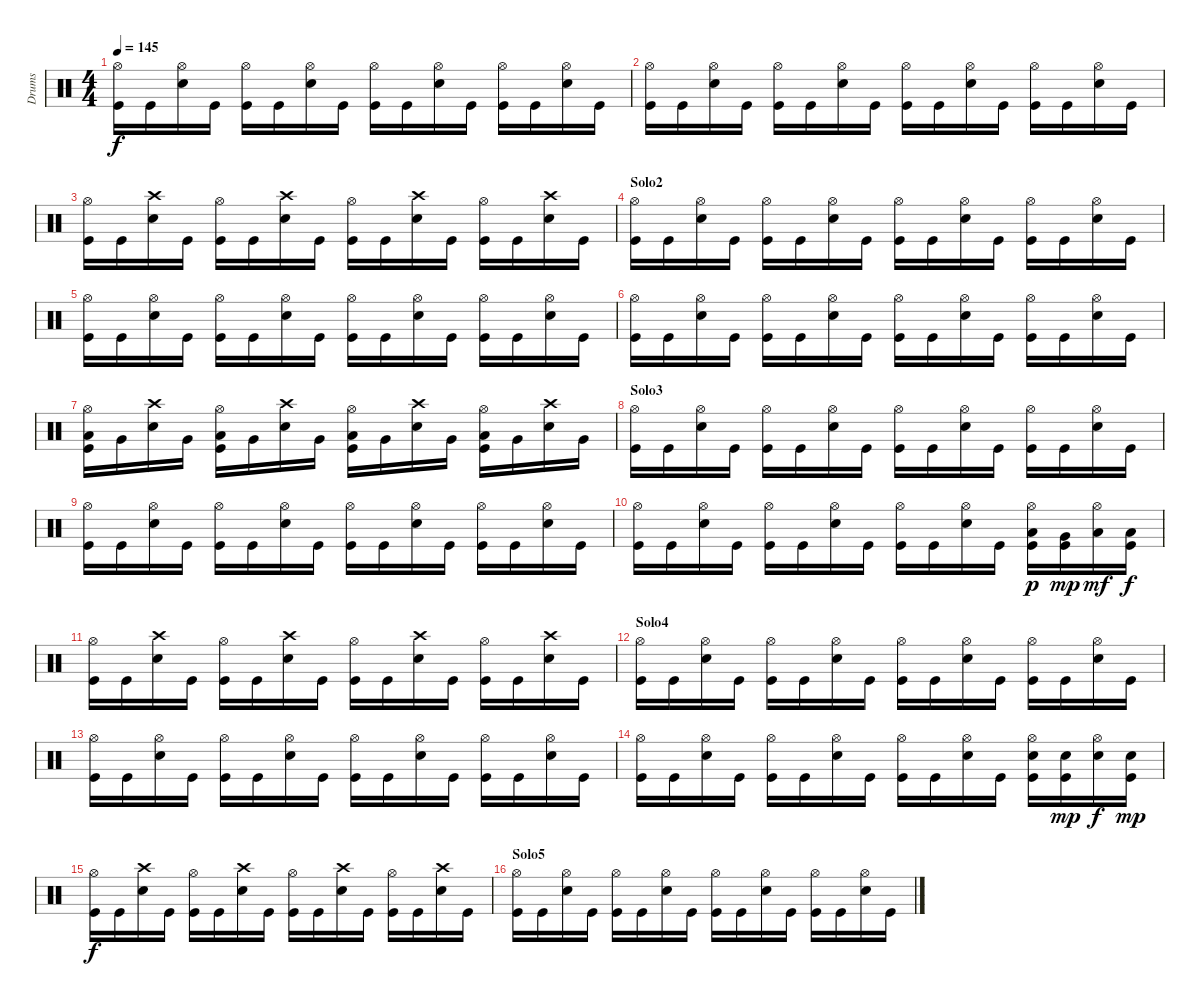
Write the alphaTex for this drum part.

\track ("Drums" "Drums") {instrument percussion}
\staff {score}
\articulation defaults
\ts (4 4)
\tempo 145
\clef neutral
\ks c
("Hi-Hat (open)" "Kick (hit)").16{dy f} "Kick (hit)".16 ("Hi-Hat (open)" "Electric Snare (hit)").16 "Kick (hit)".16 ("Hi-Hat (open)" "Kick (hit)").16 "Kick (hit)".16 ("Hi-Hat (open)" "Electric Snare (hit)").16 "Kick (hit)".16 ("Hi-Hat (open)" "Kick (hit)").16 "Kick (hit)".16 ("Hi-Hat (open)" "Electric Snare (hit)").16 "Kick (hit)".16 ("Hi-Hat (open)" "Kick (hit)").16 "Kick (hit)".16 ("Hi-Hat (open)" "Electric Snare (hit)").16 "Kick (hit)".16 |
("Hi-Hat (open)" "Kick (hit)").16 "Kick (hit)".16 ("Hi-Hat (open)" "Electric Snare (hit)").16 "Kick (hit)".16 ("Hi-Hat (open)" "Kick (hit)").16 "Kick (hit)".16 ("Hi-Hat (open)" "Electric Snare (hit)").16 "Kick (hit)".16 ("Hi-Hat (open)" "Kick (hit)").16 "Kick (hit)".16 ("Hi-Hat (open)" "Electric Snare (hit)").16 "Kick (hit)".16 ("Hi-Hat (open)" "Kick (hit)").16 "Kick (hit)".16 ("Hi-Hat (open)" "Electric Snare (hit)").16 "Kick (hit)".16 |
("Hi-Hat (open)" "Kick (hit)").16 "Kick (hit)".16 ("Crash high (hit)" "Electric Snare (hit)").16 "Kick (hit)".16 ("Hi-Hat (open)" "Kick (hit)").16 "Kick (hit)".16 ("Crash high (hit)" "Electric Snare (hit)").16 "Kick (hit)".16 ("Hi-Hat (open)" "Kick (hit)").16 "Kick (hit)".16 ("Crash high (hit)" "Electric Snare (hit)").16 "Kick (hit)".16 ("Hi-Hat (open)" "Kick (hit)").16 "Kick (hit)".16 ("Crash high (hit)" "Electric Snare (hit)").16 "Kick (hit)".16 |
\section ("" "Solo2")
("Hi-Hat (open)" "Kick (hit)").16 "Kick (hit)".16 ("Hi-Hat (open)" "Electric Snare (hit)").16 "Kick (hit)".16 ("Hi-Hat (open)" "Kick (hit)").16 "Kick (hit)".16 ("Hi-Hat (open)" "Electric Snare (hit)").16 "Kick (hit)".16 ("Hi-Hat (open)" "Kick (hit)").16 "Kick (hit)".16 ("Hi-Hat (open)" "Electric Snare (hit)").16 "Kick (hit)".16 ("Hi-Hat (open)" "Kick (hit)").16 "Kick (hit)".16 ("Hi-Hat (open)" "Electric Snare (hit)").16 "Kick (hit)".16 |
("Hi-Hat (open)" "Kick (hit)").16 "Kick (hit)".16 ("Hi-Hat (open)" "Electric Snare (hit)").16 "Kick (hit)".16 ("Hi-Hat (open)" "Kick (hit)").16 "Kick (hit)".16 ("Hi-Hat (open)" "Electric Snare (hit)").16 "Kick (hit)".16 ("Hi-Hat (open)" "Kick (hit)").16 "Kick (hit)".16 ("Hi-Hat (open)" "Electric Snare (hit)").16 "Kick (hit)".16 ("Hi-Hat (open)" "Kick (hit)").16 "Kick (hit)".16 ("Hi-Hat (open)" "Electric Snare (hit)").16 "Kick (hit)".16 |
("Hi-Hat (open)" "Kick (hit)").16 "Kick (hit)".16 ("Hi-Hat (open)" "Electric Snare (hit)").16 "Kick (hit)".16 ("Hi-Hat (open)" "Kick (hit)").16 "Kick (hit)".16 ("Hi-Hat (open)" "Electric Snare (hit)").16 "Kick (hit)".16 ("Hi-Hat (open)" "Kick (hit)").16 "Kick (hit)".16 ("Hi-Hat (open)" "Electric Snare (hit)").16 "Kick (hit)".16 ("Hi-Hat (open)" "Kick (hit)").16 "Kick (hit)".16 ("Hi-Hat (open)" "Electric Snare (hit)").16 "Kick (hit)".16 |
("Hi-Hat (open)" "Low Tom (hit)" "Kick (hit)").16 "Very Low Tom (hit)".16 ("Crash high (hit)" "Snare (hit) 2").16 "Very Low Tom (hit)".16 ("Hi-Hat (open)" "Low Tom (hit)" "Kick (hit)").16 "Very Low Tom (hit)".16 ("Crash high (hit)" "Snare (hit) 2").16 "Very Low Tom (hit)".16 ("Hi-Hat (open)" "Low Tom (hit)" "Kick (hit)").16 "Very Low Tom (hit)".16 ("Crash high (hit)" "Snare (hit) 2").16 "Very Low Tom (hit)".16 ("Hi-Hat (open)" "Low Tom (hit)" "Kick (hit)").16 "Very Low Tom (hit)".16 ("Crash high (hit)" "Snare (hit) 2").16 "Very Low Tom (hit)".16 |
\section ("" "Solo3")
("Hi-Hat (open)" "Kick (hit)").16 "Kick (hit)".16 ("Hi-Hat (open)" "Electric Snare (hit)").16 "Kick (hit)".16 ("Hi-Hat (open)" "Kick (hit)").16 "Kick (hit)".16 ("Hi-Hat (open)" "Electric Snare (hit)").16 "Kick (hit)".16 ("Hi-Hat (open)" "Kick (hit)").16 "Kick (hit)".16 ("Hi-Hat (open)" "Electric Snare (hit)").16 "Kick (hit)".16 ("Hi-Hat (open)" "Kick (hit)").16 "Kick (hit)".16 ("Hi-Hat (open)" "Electric Snare (hit)").16 "Kick (hit)".16 |
("Hi-Hat (open)" "Kick (hit)").16 "Kick (hit)".16 ("Hi-Hat (open)" "Electric Snare (hit)").16 "Kick (hit)".16 ("Hi-Hat (open)" "Kick (hit)").16 "Kick (hit)".16 ("Hi-Hat (open)" "Electric Snare (hit)").16 "Kick (hit)".16 ("Hi-Hat (open)" "Kick (hit)").16 "Kick (hit)".16 ("Hi-Hat (open)" "Electric Snare (hit)").16 "Kick (hit)".16 ("Hi-Hat (open)" "Kick (hit)").16 "Kick (hit)".16 ("Hi-Hat (open)" "Electric Snare (hit)").16 "Kick (hit)".16 |
("Hi-Hat (open)" "Kick (hit)").16 "Kick (hit)".16 ("Hi-Hat (open)" "Electric Snare (hit)").16 "Kick (hit)".16 ("Hi-Hat (open)" "Kick (hit)").16 "Kick (hit)".16 ("Hi-Hat (open)" "Electric Snare (hit)").16 "Kick (hit)".16 ("Hi-Hat (open)" "Kick (hit)").16 "Kick (hit)".16 ("Hi-Hat (open)" "Electric Snare (hit)").16 "Kick (hit)".16 ("Hi-Hat (open)" "Low Tom (hit)" "Kick (hit)").16{dy p} ("Very Low Tom (hit)" "Kick (hit)").16{dy mp} ("Hi-Hat (open)" "Low Floor Tom (hit)").16{dy mf} ("Low Floor Tom (hit)" "Kick (hit)").16{dy f} |
("Hi-Hat (open)" "Kick (hit)").16 "Kick (hit)".16 ("Crash high (hit)" "Electric Snare (hit)").16 "Kick (hit)".16 ("Hi-Hat (open)" "Kick (hit)").16 "Kick (hit)".16 ("Crash high (hit)" "Snare (hit) 2").16 "Kick (hit)".16 ("Hi-Hat (open)" "Kick (hit)").16 "Kick (hit)".16 ("Crash high (hit)" "Snare (hit) 2").16 "Kick (hit)".16 ("Hi-Hat (open)" "Kick (hit)").16 "Kick (hit)".16 ("Crash high (hit)" "Snare (hit) 2").16 "Kick (hit)".16 |
\section ("" "Solo4")
("Hi-Hat (open)" "Kick (hit)").16 "Kick (hit)".16 ("Hi-Hat (open)" "Electric Snare (hit)").16 "Kick (hit)".16 ("Hi-Hat (open)" "Kick (hit)").16 "Kick (hit)".16 ("Hi-Hat (open)" "Electric Snare (hit)").16 "Kick (hit)".16 ("Hi-Hat (open)" "Kick (hit)").16 "Kick (hit)".16 ("Hi-Hat (open)" "Electric Snare (hit)").16 "Kick (hit)".16 ("Hi-Hat (open)" "Kick (hit)").16 "Kick (hit)".16 ("Hi-Hat (open)" "Electric Snare (hit)").16 "Kick (hit)".16 |
("Hi-Hat (open)" "Kick (hit)").16 "Kick (hit)".16 ("Hi-Hat (open)" "Electric Snare (hit)").16 "Kick (hit)".16 ("Hi-Hat (open)" "Kick (hit)").16 "Kick (hit)".16 ("Hi-Hat (open)" "Electric Snare (hit)").16 "Kick (hit)".16 ("Hi-Hat (open)" "Kick (hit)").16 "Kick (hit)".16 ("Hi-Hat (open)" "Electric Snare (hit)").16 "Kick (hit)".16 ("Hi-Hat (open)" "Kick (hit)").16 "Kick (hit)".16 ("Hi-Hat (open)" "Electric Snare (hit)").16 "Kick (hit)".16 |
("Hi-Hat (open)" "Kick (hit)").16 "Kick (hit)".16 ("Hi-Hat (open)" "Electric Snare (hit)").16 "Kick (hit)".16 ("Hi-Hat (open)" "Kick (hit)").16 "Kick (hit)".16 ("Hi-Hat (open)" "Electric Snare (hit)").16 "Kick (hit)".16 ("Hi-Hat (open)" "Kick (hit)").16 "Kick (hit)".16 ("Hi-Hat (open)" "Electric Snare (hit)").16 "Kick (hit)".16 ("Hi-Hat (open)" "Electric Snare (hit)" "Kick (hit)").16 ("Snare (hit) 2" "Kick (hit)").16{dy mp} ("Hi-Hat (open)" "Electric Snare (hit)").16{dy f} ("Snare (hit) 2" "Kick (hit)").16{dy mp} |
("Hi-Hat (open)" "Kick (hit)").16{dy f} "Kick (hit)".16 ("Crash high (hit)" "Snare (hit) 2").16 "Kick (hit)".16 ("Hi-Hat (open)" "Kick (hit)").16 "Kick (hit)".16 ("Crash high (hit)" "Snare (hit) 2").16 "Kick (hit)".16 ("Hi-Hat (open)" "Kick (hit)").16 "Kick (hit)".16 ("Crash high (hit)" "Snare (hit) 2").16 "Kick (hit)".16 ("Hi-Hat (open)" "Kick (hit)").16 "Kick (hit)".16 ("Crash high (hit)" "Snare (hit) 2").16 "Kick (hit)".16 |
\section ("" "Solo5")
("Hi-Hat (open)" "Kick (hit)").16 "Kick (hit)".16 ("Hi-Hat (open)" "Electric Snare (hit)").16 "Kick (hit)".16 ("Hi-Hat (open)" "Kick (hit)").16 "Kick (hit)".16 ("Hi-Hat (open)" "Electric Snare (hit)").16 "Kick (hit)".16 ("Hi-Hat (open)" "Kick (hit)").16 "Kick (hit)".16 ("Hi-Hat (open)" "Electric Snare (hit)").16 "Kick (hit)".16 ("Hi-Hat (open)" "Kick (hit)").16 "Kick (hit)".16 ("Hi-Hat (open)" "Electric Snare (hit)").16 "Kick (hit)".16
